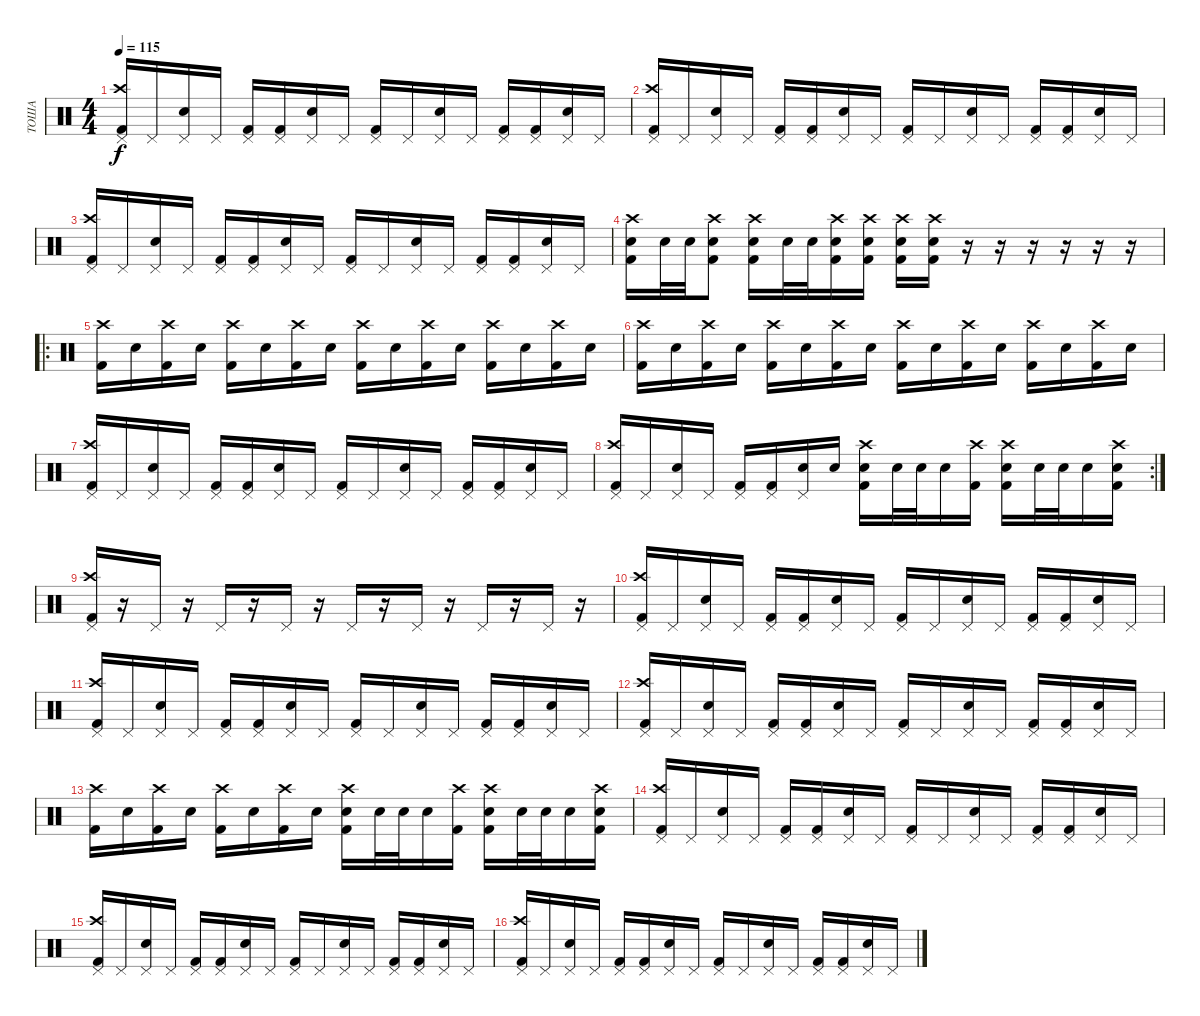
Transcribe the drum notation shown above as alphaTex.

\track ("ТОША" "ТОША") {instrument percussion}
\staff {score}
\articulation defaults
\ts (4 4)
\tempo 115
\clef neutral
\ks c
("Pedal Hi-Hat (hit)" "Crash high (hit)" "Kick (hit) 2").16{dy f} "Pedal Hi-Hat (hit)".16 ("Pedal Hi-Hat (hit)" "Electric Snare (hit)").16 "Pedal Hi-Hat (hit)".16 ("Pedal Hi-Hat (hit)" "Kick (hit) 2").16 ("Pedal Hi-Hat (hit)" "Kick (hit) 2").16 ("Pedal Hi-Hat (hit)" "Electric Snare (hit)").16 "Pedal Hi-Hat (hit)".16 ("Pedal Hi-Hat (hit)" "Kick (hit) 2").16 "Pedal Hi-Hat (hit)".16 ("Pedal Hi-Hat (hit)" "Electric Snare (hit)").16 "Pedal Hi-Hat (hit)".16 ("Pedal Hi-Hat (hit)" "Kick (hit) 2").16 ("Pedal Hi-Hat (hit)" "Kick (hit) 2").16 ("Pedal Hi-Hat (hit)" "Electric Snare (hit)").16 "Pedal Hi-Hat (hit)".16 |
("Pedal Hi-Hat (hit)" "Crash high (hit)" "Kick (hit) 2").16 "Pedal Hi-Hat (hit)".16 ("Pedal Hi-Hat (hit)" "Electric Snare (hit)").16 "Pedal Hi-Hat (hit)".16 ("Pedal Hi-Hat (hit)" "Kick (hit) 2").16 ("Pedal Hi-Hat (hit)" "Kick (hit) 2").16 ("Pedal Hi-Hat (hit)" "Electric Snare (hit)").16 "Pedal Hi-Hat (hit)".16 ("Pedal Hi-Hat (hit)" "Kick (hit) 2").16 "Pedal Hi-Hat (hit)".16 ("Pedal Hi-Hat (hit)" "Electric Snare (hit)").16 "Pedal Hi-Hat (hit)".16 ("Pedal Hi-Hat (hit)" "Kick (hit) 2").16 ("Pedal Hi-Hat (hit)" "Kick (hit) 2").16 ("Pedal Hi-Hat (hit)" "Electric Snare (hit)").16 "Pedal Hi-Hat (hit)".16 |
("Pedal Hi-Hat (hit)" "Crash high (hit)" "Kick (hit) 2").16 "Pedal Hi-Hat (hit)".16 ("Pedal Hi-Hat (hit)" "Electric Snare (hit)").16 "Pedal Hi-Hat (hit)".16 ("Pedal Hi-Hat (hit)" "Kick (hit) 2").16 ("Pedal Hi-Hat (hit)" "Kick (hit) 2").16 ("Pedal Hi-Hat (hit)" "Electric Snare (hit)").16 "Pedal Hi-Hat (hit)".16 ("Pedal Hi-Hat (hit)" "Kick (hit) 2").16 "Pedal Hi-Hat (hit)".16 ("Pedal Hi-Hat (hit)" "Electric Snare (hit)").16 "Pedal Hi-Hat (hit)".16 ("Pedal Hi-Hat (hit)" "Kick (hit) 2").16 ("Pedal Hi-Hat (hit)" "Kick (hit) 2").16 ("Pedal Hi-Hat (hit)" "Electric Snare (hit)").16 "Pedal Hi-Hat (hit)".16 |
("Crash high (hit)" "Electric Snare (hit)" "Kick (hit) 2").16 "Electric Snare (hit)".32 "Electric Snare (hit)".32 ("Crash high (hit)" "Electric Snare (hit)" "Kick (hit) 2").8 ("Crash high (hit)" "Electric Snare (hit)" "Kick (hit) 2").16 "Electric Snare (hit)".32 "Electric Snare (hit)".32 ("Crash high (hit)" "Electric Snare (hit)" "Kick (hit) 2").16 ("Crash high (hit)" "Electric Snare (hit)" "Kick (hit) 2").16 ("Crash high (hit)" "Electric Snare (hit)" "Kick (hit) 2").16 ("Crash high (hit)" "Electric Snare (hit)" "Kick (hit) 2").16 r.16 r.16 r.16 r.16 r.16 r.16 |
\ro
("Crash high (hit)" "Kick (hit) 2").16 "Electric Snare (hit)".16 ("Crash high (hit)" "Kick (hit) 2").16 "Electric Snare (hit)".16 ("Crash high (hit)" "Kick (hit) 2").16 "Electric Snare (hit)".16 ("Crash high (hit)" "Kick (hit) 2").16 "Electric Snare (hit)".16 ("Crash high (hit)" "Kick (hit) 2").16 "Electric Snare (hit)".16 ("Crash high (hit)" "Kick (hit) 2").16 "Electric Snare (hit)".16 ("Crash high (hit)" "Kick (hit) 2").16 "Electric Snare (hit)".16 ("Crash high (hit)" "Kick (hit) 2").16 "Electric Snare (hit)".16 |
("Crash high (hit)" "Kick (hit) 2").16 "Electric Snare (hit)".16 ("Crash high (hit)" "Kick (hit) 2").16 "Electric Snare (hit)".16 ("Crash high (hit)" "Kick (hit) 2").16 "Electric Snare (hit)".16 ("Crash high (hit)" "Kick (hit) 2").16 "Electric Snare (hit)".16 ("Crash high (hit)" "Kick (hit) 2").16 "Electric Snare (hit)".16 ("Crash high (hit)" "Kick (hit) 2").16 "Electric Snare (hit)".16 ("Crash high (hit)" "Kick (hit) 2").16 "Electric Snare (hit)".16 ("Crash high (hit)" "Kick (hit) 2").16 "Electric Snare (hit)".16 |
("Pedal Hi-Hat (hit)" "Crash high (hit)" "Kick (hit) 2").16 "Pedal Hi-Hat (hit)".16 ("Pedal Hi-Hat (hit)" "Electric Snare (hit)").16 "Pedal Hi-Hat (hit)".16 ("Pedal Hi-Hat (hit)" "Kick (hit) 2").16 ("Pedal Hi-Hat (hit)" "Kick (hit) 2").16 ("Pedal Hi-Hat (hit)" "Electric Snare (hit)").16 "Pedal Hi-Hat (hit)".16 ("Pedal Hi-Hat (hit)" "Kick (hit) 2").16 "Pedal Hi-Hat (hit)".16 ("Pedal Hi-Hat (hit)" "Electric Snare (hit)").16 "Pedal Hi-Hat (hit)".16 ("Pedal Hi-Hat (hit)" "Kick (hit) 2").16 ("Pedal Hi-Hat (hit)" "Kick (hit) 2").16 ("Pedal Hi-Hat (hit)" "Electric Snare (hit)").16 "Pedal Hi-Hat (hit)".16 |
\rc 2
("Crash high (hit)" "Pedal Hi-Hat (hit)" "Kick (hit) 2").16 "Pedal Hi-Hat (hit)".16 ("Pedal Hi-Hat (hit)" "Electric Snare (hit)").16 "Pedal Hi-Hat (hit)".16 ("Pedal Hi-Hat (hit)" "Kick (hit) 2").16 ("Pedal Hi-Hat (hit)" "Kick (hit) 2").16 ("Pedal Hi-Hat (hit)" "Electric Snare (hit)").16 "Electric Snare (hit)".16 ("Crash high (hit)" "Electric Snare (hit)" "Kick (hit) 2").16 "Electric Snare (hit)".32 "Electric Snare (hit)".32 "Electric Snare (hit)".16 ("Crash high (hit)" "Kick (hit) 2").16 ("Crash high (hit)" "Electric Snare (hit)" "Kick (hit) 2").16 "Electric Snare (hit)".32 "Electric Snare (hit)".32 "Electric Snare (hit)".16 ("Crash high (hit)" "Electric Snare (hit)" "Kick (hit) 2").16 |
("Pedal Hi-Hat (hit)" "Crash high (hit)" "Kick (hit) 2").16 r.16 "Pedal Hi-Hat (hit)".16 r.16 "Pedal Hi-Hat (hit)".16 r.16 "Pedal Hi-Hat (hit)".16 r.16 "Pedal Hi-Hat (hit)".16 r.16 "Pedal Hi-Hat (hit)".16 r.16 "Pedal Hi-Hat (hit)".16 r.16 "Pedal Hi-Hat (hit)".16 r.16 |
("Pedal Hi-Hat (hit)" "Crash high (hit)" "Kick (hit) 2").16 "Pedal Hi-Hat (hit)".16 ("Pedal Hi-Hat (hit)" "Electric Snare (hit)").16 "Pedal Hi-Hat (hit)".16 ("Pedal Hi-Hat (hit)" "Kick (hit) 2").16 ("Pedal Hi-Hat (hit)" "Kick (hit) 2").16 ("Pedal Hi-Hat (hit)" "Electric Snare (hit)").16 "Pedal Hi-Hat (hit)".16 ("Pedal Hi-Hat (hit)" "Kick (hit) 2").16 "Pedal Hi-Hat (hit)".16 ("Pedal Hi-Hat (hit)" "Electric Snare (hit)").16 "Pedal Hi-Hat (hit)".16 ("Pedal Hi-Hat (hit)" "Kick (hit) 2").16 ("Pedal Hi-Hat (hit)" "Kick (hit) 2").16 ("Pedal Hi-Hat (hit)" "Electric Snare (hit)").16 "Pedal Hi-Hat (hit)".16 |
("Pedal Hi-Hat (hit)" "Crash high (hit)" "Kick (hit) 2").16 "Pedal Hi-Hat (hit)".16 ("Pedal Hi-Hat (hit)" "Electric Snare (hit)").16 "Pedal Hi-Hat (hit)".16 ("Pedal Hi-Hat (hit)" "Kick (hit) 2").16 ("Pedal Hi-Hat (hit)" "Kick (hit) 2").16 ("Pedal Hi-Hat (hit)" "Electric Snare (hit)").16 "Pedal Hi-Hat (hit)".16 ("Pedal Hi-Hat (hit)" "Kick (hit) 2").16 "Pedal Hi-Hat (hit)".16 ("Pedal Hi-Hat (hit)" "Electric Snare (hit)").16 "Pedal Hi-Hat (hit)".16 ("Pedal Hi-Hat (hit)" "Kick (hit) 2").16 ("Pedal Hi-Hat (hit)" "Kick (hit) 2").16 ("Pedal Hi-Hat (hit)" "Electric Snare (hit)").16 "Pedal Hi-Hat (hit)".16 |
("Pedal Hi-Hat (hit)" "Crash high (hit)" "Kick (hit) 2").16 "Pedal Hi-Hat (hit)".16 ("Pedal Hi-Hat (hit)" "Electric Snare (hit)").16 "Pedal Hi-Hat (hit)".16 ("Pedal Hi-Hat (hit)" "Kick (hit) 2").16 ("Pedal Hi-Hat (hit)" "Kick (hit) 2").16 ("Pedal Hi-Hat (hit)" "Electric Snare (hit)").16 "Pedal Hi-Hat (hit)".16 ("Pedal Hi-Hat (hit)" "Kick (hit) 2").16 "Pedal Hi-Hat (hit)".16 ("Pedal Hi-Hat (hit)" "Electric Snare (hit)").16 "Pedal Hi-Hat (hit)".16 ("Pedal Hi-Hat (hit)" "Kick (hit) 2").16 ("Pedal Hi-Hat (hit)" "Kick (hit) 2").16 ("Pedal Hi-Hat (hit)" "Electric Snare (hit)").16 "Pedal Hi-Hat (hit)".16 |
("Crash high (hit)" "Kick (hit) 2").16 "Electric Snare (hit)".16 ("Crash high (hit)" "Kick (hit) 2").16 "Electric Snare (hit)".16 ("Crash high (hit)" "Kick (hit) 2").16 "Electric Snare (hit)".16 ("Crash high (hit)" "Kick (hit) 2").16 "Electric Snare (hit)".16 ("Crash high (hit)" "Electric Snare (hit)" "Kick (hit) 2").16 "Electric Snare (hit)".32 "Electric Snare (hit)".32 "Electric Snare (hit)".16 ("Crash high (hit)" "Kick (hit) 2").16 ("Crash high (hit)" "Electric Snare (hit)" "Kick (hit) 2").16 "Electric Snare (hit)".32 "Electric Snare (hit)".32 "Electric Snare (hit)".16 ("Crash high (hit)" "Electric Snare (hit)" "Kick (hit) 2").16 |
("Pedal Hi-Hat (hit)" "Crash high (hit)" "Kick (hit) 2").16 "Pedal Hi-Hat (hit)".16 ("Pedal Hi-Hat (hit)" "Electric Snare (hit)").16 "Pedal Hi-Hat (hit)".16 ("Pedal Hi-Hat (hit)" "Kick (hit) 2").16 ("Pedal Hi-Hat (hit)" "Kick (hit) 2").16 ("Pedal Hi-Hat (hit)" "Electric Snare (hit)").16 "Pedal Hi-Hat (hit)".16 ("Pedal Hi-Hat (hit)" "Kick (hit) 2").16 "Pedal Hi-Hat (hit)".16 ("Pedal Hi-Hat (hit)" "Electric Snare (hit)").16 "Pedal Hi-Hat (hit)".16 ("Pedal Hi-Hat (hit)" "Kick (hit) 2").16 ("Pedal Hi-Hat (hit)" "Kick (hit) 2").16 ("Pedal Hi-Hat (hit)" "Electric Snare (hit)").16 "Pedal Hi-Hat (hit)".16 |
("Pedal Hi-Hat (hit)" "Crash high (hit)" "Kick (hit) 2").16 "Pedal Hi-Hat (hit)".16 ("Pedal Hi-Hat (hit)" "Electric Snare (hit)").16 "Pedal Hi-Hat (hit)".16 ("Pedal Hi-Hat (hit)" "Kick (hit) 2").16 ("Pedal Hi-Hat (hit)" "Kick (hit) 2").16 ("Pedal Hi-Hat (hit)" "Electric Snare (hit)").16 "Pedal Hi-Hat (hit)".16 ("Pedal Hi-Hat (hit)" "Kick (hit) 2").16 "Pedal Hi-Hat (hit)".16 ("Pedal Hi-Hat (hit)" "Electric Snare (hit)").16 "Pedal Hi-Hat (hit)".16 ("Pedal Hi-Hat (hit)" "Kick (hit) 2").16 ("Pedal Hi-Hat (hit)" "Kick (hit) 2").16 ("Pedal Hi-Hat (hit)" "Electric Snare (hit)").16 "Pedal Hi-Hat (hit)".16 |
("Pedal Hi-Hat (hit)" "Crash high (hit)" "Kick (hit) 2").16 "Pedal Hi-Hat (hit)".16 ("Pedal Hi-Hat (hit)" "Electric Snare (hit)").16 "Pedal Hi-Hat (hit)".16 ("Pedal Hi-Hat (hit)" "Kick (hit) 2").16 ("Pedal Hi-Hat (hit)" "Kick (hit) 2").16 ("Pedal Hi-Hat (hit)" "Electric Snare (hit)").16 "Pedal Hi-Hat (hit)".16 ("Pedal Hi-Hat (hit)" "Kick (hit) 2").16 "Pedal Hi-Hat (hit)".16 ("Pedal Hi-Hat (hit)" "Electric Snare (hit)").16 "Pedal Hi-Hat (hit)".16 ("Pedal Hi-Hat (hit)" "Kick (hit) 2").16 ("Pedal Hi-Hat (hit)" "Kick (hit) 2").16 ("Pedal Hi-Hat (hit)" "Electric Snare (hit)").16 "Pedal Hi-Hat (hit)".16
